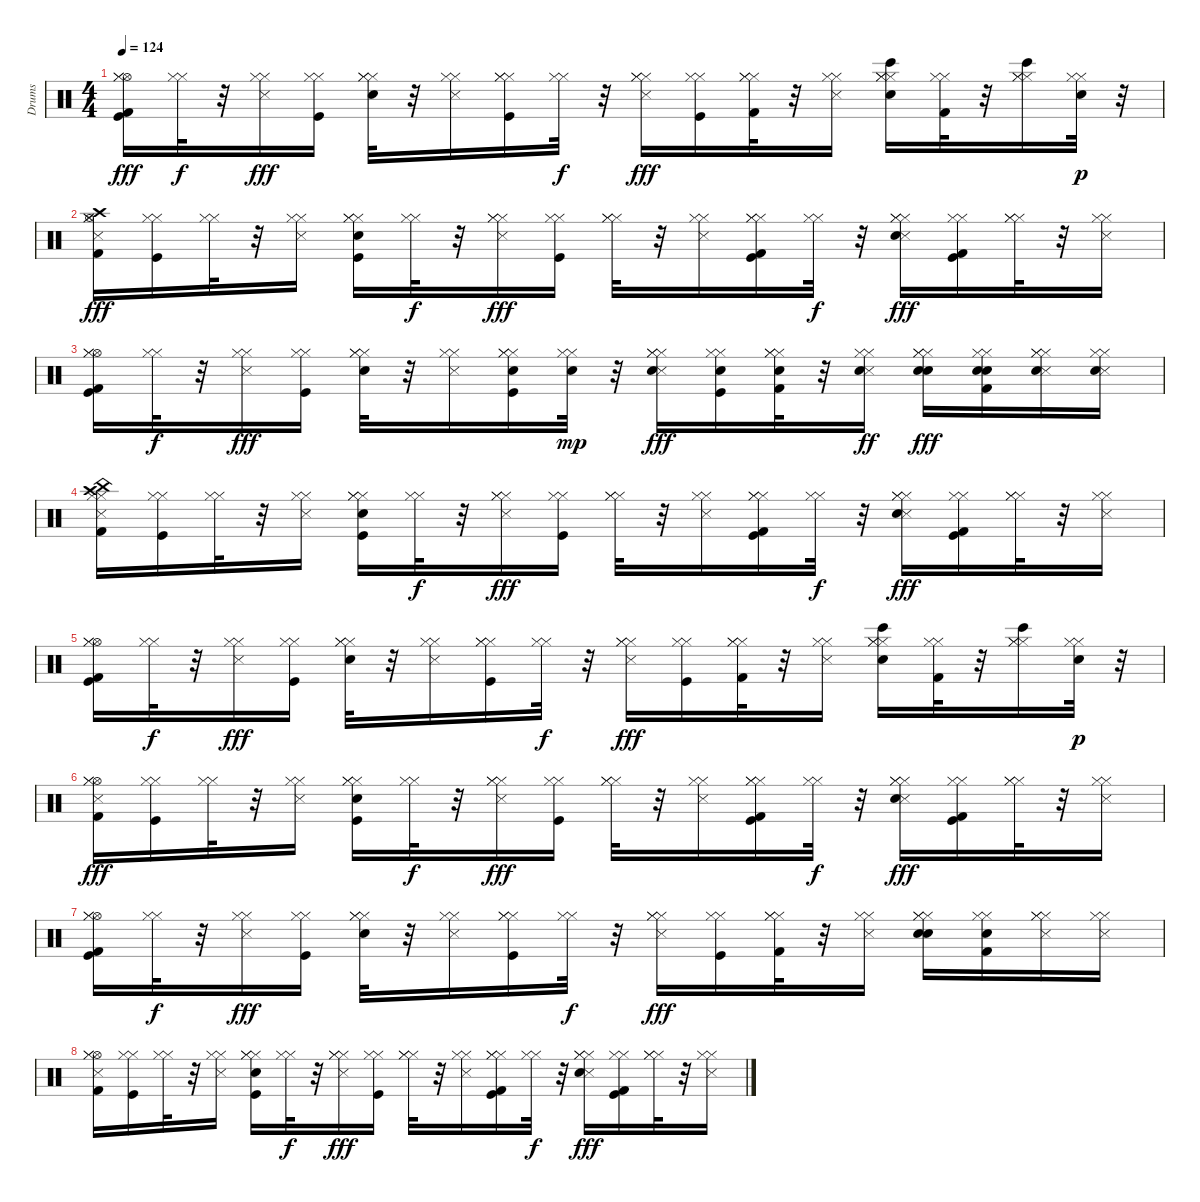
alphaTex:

\track ("Drums" "Drums") {instrument percussion}
\staff {score}
\articulation defaults
\ts (4 4)
\tempo 124
\clef neutral
\ks c
("Kick (hit)" "Hi-Hat (open)" "Kick (hit) 2" "Hi-Hat (closed)" "Hi-Hat (closed)").16{dy fff} ("Hi-Hat (closed)" "Hi-Hat (closed)").32{dy f} r.32 ("Metronome (hit)" "Hi-Hat (closed)" "Hi-Hat (closed)").16{dy fff} ("Kick (hit)" "Hi-Hat (closed)" "Hi-Hat (closed)").16 ("Electric Snare (hit)" "Hi-Hat (closed)" "Hi-Hat (closed)" "Hi-Hat (closed)").32 r.32 ("Metronome (hit)" "Hi-Hat (closed)" "Hi-Hat (closed)").16 ("Kick (hit)" "Hi-Hat (closed)" "Hi-Hat (closed)" "Hi-Hat (closed)").16 ("Hi-Hat (closed)" "Hi-Hat (closed)").32{dy f} r.32 ("Metronome (hit)" "Hi-Hat (closed)" "Hi-Hat (closed)" "Hi-Hat (closed)").16{dy fff} ("Kick (hit)" "Hi-Hat (closed)" "Hi-Hat (closed)").16 ("Hi-Hat (closed)" "Kick (hit) 2" "Hi-Hat (closed)" "Hi-Hat (closed)").32 r.32 ("Metronome (hit)" "Hi-Hat (closed)" "Hi-Hat (closed)").16 ("Bongo High (hit)" "Electric Snare (hit)" "Hi-Hat (closed)" "Hi-Hat (closed)" "Hi-Hat (closed)").16 ("Kick (hit) 2" "Hi-Hat (closed)" "Hi-Hat (closed)").32 r.32 ("Bongo High (hit)" "Hi-Hat (closed)" "Hi-Hat (closed)" "Hi-Hat (closed)").16 ("Hi-Hat (closed)" "Hi-Hat (closed)" "Electric Snare (hit)").32{dy p} r.32 |
("Metronome (hit)" "Crash high (hit)" "Kick (hit) 2" "Hi-Hat (open)" "Hi-Hat (closed)" "Hi-Hat (closed)").16{dy fff} ("Kick (hit)" "Hi-Hat (closed)" "Hi-Hat (closed)").16 ("Hi-Hat (closed)" "Hi-Hat (closed)").32 r.32 ("Metronome (hit)" "Hi-Hat (closed)" "Hi-Hat (closed)").16 ("Kick (hit)" "Electric Snare (hit)" "Hi-Hat (closed)" "Hi-Hat (closed)" "Hi-Hat (closed)").16 ("Hi-Hat (closed)" "Hi-Hat (closed)").32{dy f} r.32 ("Metronome (hit)" "Hi-Hat (closed)" "Hi-Hat (closed)" "Hi-Hat (closed)").16{dy fff} ("Kick (hit)" "Hi-Hat (closed)" "Hi-Hat (closed)").16 ("Hi-Hat (closed)" "Hi-Hat (closed)" "Hi-Hat (closed)").32 r.32 ("Metronome (hit)" "Hi-Hat (closed)" "Hi-Hat (closed)").16 ("Kick (hit)" "Kick (hit) 2" "Hi-Hat (closed)" "Hi-Hat (closed)" "Hi-Hat (closed)").16 ("Hi-Hat (closed)" "Hi-Hat (closed)").32{dy f} r.32 ("Metronome (hit)" "Electric Snare (hit)" "Hi-Hat (closed)" "Hi-Hat (closed)" "Hi-Hat (closed)").16{dy fff} ("Kick (hit)" "Kick (hit) 2" "Hi-Hat (closed)" "Hi-Hat (closed)").16 ("Hi-Hat (closed)" "Hi-Hat (closed)" "Hi-Hat (closed)").32 r.32 ("Metronome (hit)" "Hi-Hat (closed)" "Hi-Hat (closed)").16 |
("Kick (hit)" "Hi-Hat (open)" "Kick (hit) 2" "Hi-Hat (closed)" "Hi-Hat (closed)").16 ("Hi-Hat (closed)" "Hi-Hat (closed)").32{dy f} r.32 ("Metronome (hit)" "Hi-Hat (closed)" "Hi-Hat (closed)").16{dy fff} ("Kick (hit)" "Hi-Hat (closed)" "Hi-Hat (closed)").16 ("Hi-Hat (closed)" "Electric Snare (hit)" "Hi-Hat (closed)" "Hi-Hat (closed)").32 r.32 ("Metronome (hit)" "Hi-Hat (closed)" "Hi-Hat (closed)").16 ("Kick (hit)" "Electric Snare (hit)" "Hi-Hat (closed)" "Hi-Hat (closed)" "Hi-Hat (closed)").16 ("Electric Snare (hit)" "Hi-Hat (closed)" "Hi-Hat (closed)").32{dy mp} r.32 ("Metronome (hit)" "Electric Snare (hit)" "Hi-Hat (closed)" "Hi-Hat (closed)" "Hi-Hat (closed)").16{dy fff} ("Kick (hit)" "Electric Snare (hit)" "Hi-Hat (closed)" "Hi-Hat (closed)").16 ("Electric Snare (hit)" "Kick (hit) 2" "Hi-Hat (closed)" "Hi-Hat (closed)" "Hi-Hat (closed)").32 r.32 ("Metronome (hit)" "Electric Snare (hit)" "Hi-Hat (closed)" "Hi-Hat (closed)").16{dy ff} ("Hand Clap (hit)" "Hi-Hat (closed)" "Electric Snare (hit)" "Hi-Hat (closed)" "Hi-Hat (closed)").16{dy fff} ("Hand Clap (hit)" "Electric Snare (hit)" "Kick (hit) 2" "Hi-Hat (closed)" "Hi-Hat (closed)").16 ("Snare (side stick) 3" "Electric Snare (hit)" "Hi-Hat (closed)" "Hi-Hat (closed)" "Hi-Hat (closed)").16 ("Snare (side stick) 3" "Electric Snare (hit)" "Hi-Hat (closed)" "Hi-Hat (closed)").16 |
("Metronome (hit)" "Crash high (hit)" "China (hit)" "Kick (hit) 2" "Hi-Hat (closed)" "Hi-Hat (closed)").16 ("Kick (hit)" "Hi-Hat (closed)" "Hi-Hat (closed)").16 ("Hi-Hat (closed)" "Hi-Hat (closed)").32 r.32 ("Metronome (hit)" "Hi-Hat (closed)" "Hi-Hat (closed)").16 ("Kick (hit)" "Hi-Hat (closed)" "Electric Snare (hit)" "Hi-Hat (closed)" "Hi-Hat (closed)").16 ("Hi-Hat (closed)" "Hi-Hat (closed)").32{dy f} r.32 ("Metronome (hit)" "Hi-Hat (closed)" "Hi-Hat (closed)" "Hi-Hat (closed)").16{dy fff} ("Kick (hit)" "Hi-Hat (closed)" "Hi-Hat (closed)").16 ("Hi-Hat (closed)" "Hi-Hat (closed)" "Hi-Hat (closed)").32 r.32 ("Metronome (hit)" "Hi-Hat (closed)" "Hi-Hat (closed)").16 ("Kick (hit)" "Hi-Hat (closed)" "Kick (hit) 2" "Hi-Hat (closed)" "Hi-Hat (closed)").16 ("Hi-Hat (closed)" "Hi-Hat (closed)").32{dy f} r.32 ("Metronome (hit)" "Hi-Hat (closed)" "Electric Snare (hit)" "Hi-Hat (closed)" "Hi-Hat (closed)").16{dy fff} ("Kick (hit)" "Kick (hit) 2" "Hi-Hat (closed)" "Hi-Hat (closed)").16 ("Hi-Hat (closed)" "Hi-Hat (closed)" "Hi-Hat (closed)").32 r.32 ("Metronome (hit)" "Hi-Hat (closed)" "Hi-Hat (closed)").16 |
("Kick (hit)" "Hi-Hat (open)" "Kick (hit) 2" "Hi-Hat (closed)" "Hi-Hat (closed)").16 ("Hi-Hat (closed)" "Hi-Hat (closed)").32{dy f} r.32 ("Metronome (hit)" "Hi-Hat (closed)" "Hi-Hat (closed)").16{dy fff} ("Kick (hit)" "Hi-Hat (closed)" "Hi-Hat (closed)").16 ("Electric Snare (hit)" "Hi-Hat (closed)" "Hi-Hat (closed)" "Hi-Hat (closed)").32 r.32 ("Metronome (hit)" "Hi-Hat (closed)" "Hi-Hat (closed)").16 ("Kick (hit)" "Hi-Hat (closed)" "Hi-Hat (closed)" "Hi-Hat (closed)").16 ("Hi-Hat (closed)" "Hi-Hat (closed)").32{dy f} r.32 ("Metronome (hit)" "Hi-Hat (closed)" "Hi-Hat (closed)" "Hi-Hat (closed)").16{dy fff} ("Kick (hit)" "Hi-Hat (closed)" "Hi-Hat (closed)").16 ("Hi-Hat (closed)" "Kick (hit) 2" "Hi-Hat (closed)" "Hi-Hat (closed)").32 r.32 ("Metronome (hit)" "Hi-Hat (closed)" "Hi-Hat (closed)").16 ("Bongo High (hit)" "Electric Snare (hit)" "Hi-Hat (closed)" "Hi-Hat (closed)" "Hi-Hat (closed)").16 ("Kick (hit) 2" "Hi-Hat (closed)" "Hi-Hat (closed)").32 r.32 ("Bongo High (hit)" "Hi-Hat (closed)" "Hi-Hat (closed)" "Hi-Hat (closed)").16 ("Hi-Hat (closed)" "Hi-Hat (closed)" "Electric Snare (hit)").32{dy p} r.32 |
("Metronome (hit)" "Kick (hit) 2" "Hi-Hat (open)" "Hi-Hat (closed)" "Hi-Hat (closed)").16{dy fff} ("Kick (hit)" "Hi-Hat (closed)" "Hi-Hat (closed)").16 ("Hi-Hat (closed)" "Hi-Hat (closed)").32 r.32 ("Metronome (hit)" "Hi-Hat (closed)" "Hi-Hat (closed)").16 ("Kick (hit)" "Electric Snare (hit)" "Hi-Hat (closed)" "Hi-Hat (closed)" "Hi-Hat (closed)").16 ("Hi-Hat (closed)" "Hi-Hat (closed)").32{dy f} r.32 ("Metronome (hit)" "Hi-Hat (closed)" "Hi-Hat (closed)" "Hi-Hat (closed)").16{dy fff} ("Kick (hit)" "Hi-Hat (closed)" "Hi-Hat (closed)").16 ("Hi-Hat (closed)" "Hi-Hat (closed)" "Hi-Hat (closed)").32 r.32 ("Metronome (hit)" "Hi-Hat (closed)" "Hi-Hat (closed)").16 ("Kick (hit)" "Kick (hit) 2" "Hi-Hat (closed)" "Hi-Hat (closed)" "Hi-Hat (closed)").16 ("Hi-Hat (closed)" "Hi-Hat (closed)").32{dy f} r.32 ("Metronome (hit)" "Electric Snare (hit)" "Hi-Hat (closed)" "Hi-Hat (closed)" "Hi-Hat (closed)").16{dy fff} ("Kick (hit)" "Kick (hit) 2" "Hi-Hat (closed)" "Hi-Hat (closed)").16 ("Hi-Hat (closed)" "Hi-Hat (closed)" "Hi-Hat (closed)").32 r.32 ("Metronome (hit)" "Hi-Hat (closed)" "Hi-Hat (closed)").16 |
("Kick (hit)" "Hi-Hat (open)" "Kick (hit) 2" "Hi-Hat (closed)" "Hi-Hat (closed)").16 ("Hi-Hat (closed)" "Hi-Hat (closed)").32{dy f} r.32 ("Metronome (hit)" "Hi-Hat (closed)" "Hi-Hat (closed)").16{dy fff} ("Kick (hit)" "Hi-Hat (closed)" "Hi-Hat (closed)").16 ("Hi-Hat (closed)" "Electric Snare (hit)" "Hi-Hat (closed)" "Hi-Hat (closed)").32 r.32 ("Metronome (hit)" "Hi-Hat (closed)" "Hi-Hat (closed)").16 ("Kick (hit)" "Hi-Hat (closed)" "Hi-Hat (closed)" "Hi-Hat (closed)").16 ("Hi-Hat (closed)" "Hi-Hat (closed)").32{dy f} r.32 ("Metronome (hit)" "Hi-Hat (closed)" "Hi-Hat (closed)" "Hi-Hat (closed)").16{dy fff} ("Kick (hit)" "Hi-Hat (closed)" "Hi-Hat (closed)").16 ("Kick (hit) 2" "Hi-Hat (closed)" "Hi-Hat (closed)" "Hi-Hat (closed)").32 r.32 ("Metronome (hit)" "Hi-Hat (closed)" "Hi-Hat (closed)").16 ("Hand Clap (hit)" "Hi-Hat (closed)" "Electric Snare (hit)" "Hi-Hat (closed)" "Hi-Hat (closed)").16 ("Hand Clap (hit)" "Kick (hit) 2" "Hi-Hat (closed)" "Hi-Hat (closed)").16 ("Snare (side stick) 3" "Hi-Hat (closed)" "Hi-Hat (closed)" "Hi-Hat (closed)").16 ("Snare (side stick) 3" "Hi-Hat (closed)" "Hi-Hat (closed)").16 |
("Metronome (hit)" "Hi-Hat (open)" "Kick (hit) 2" "Hi-Hat (closed)" "Hi-Hat (closed)").16 ("Kick (hit)" "Hi-Hat (closed)" "Hi-Hat (closed)").16 ("Hi-Hat (closed)" "Hi-Hat (closed)").32 r.32 ("Metronome (hit)" "Hi-Hat (closed)" "Hi-Hat (closed)").16 ("Kick (hit)" "Hi-Hat (closed)" "Electric Snare (hit)" "Hi-Hat (closed)" "Hi-Hat (closed)").16 ("Hi-Hat (closed)" "Hi-Hat (closed)").32{dy f} r.32 ("Metronome (hit)" "Hi-Hat (closed)" "Hi-Hat (closed)" "Hi-Hat (closed)").16{dy fff} ("Kick (hit)" "Hi-Hat (closed)" "Hi-Hat (closed)").16 ("Hi-Hat (closed)" "Hi-Hat (closed)" "Hi-Hat (closed)").32 r.32 ("Metronome (hit)" "Hi-Hat (closed)" "Hi-Hat (closed)").16 ("Kick (hit)" "Hi-Hat (closed)" "Kick (hit) 2" "Hi-Hat (closed)" "Hi-Hat (closed)").16 ("Hi-Hat (closed)" "Hi-Hat (closed)").32{dy f} r.32 ("Metronome (hit)" "Hi-Hat (closed)" "Electric Snare (hit)" "Hi-Hat (closed)" "Hi-Hat (closed)").16{dy fff} ("Kick (hit)" "Kick (hit) 2" "Hi-Hat (closed)" "Hi-Hat (closed)").16 ("Hi-Hat (closed)" "Hi-Hat (closed)" "Hi-Hat (closed)").32 r.32 ("Metronome (hit)" "Hi-Hat (closed)" "Hi-Hat (closed)").16
